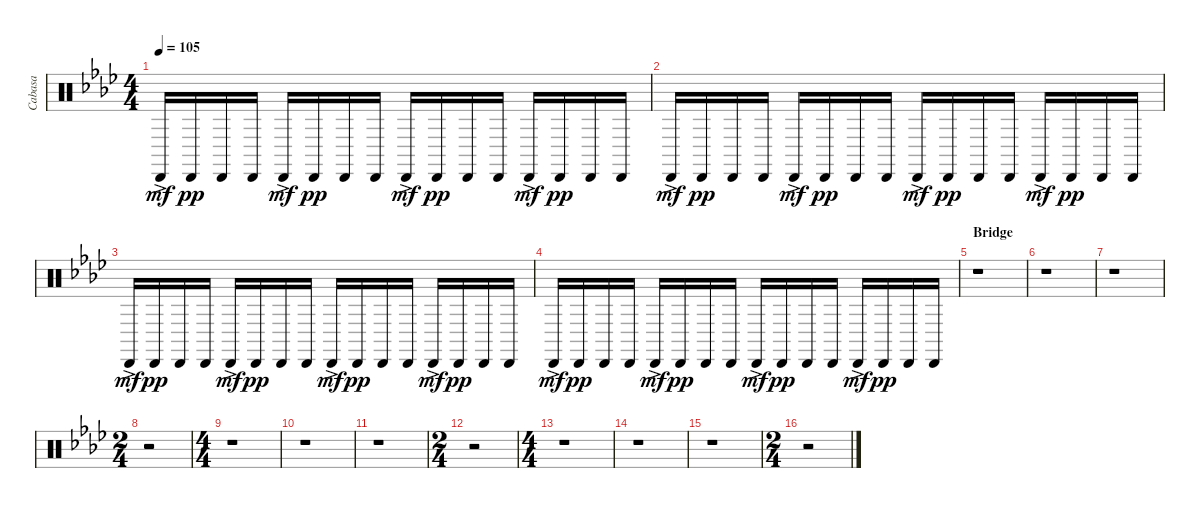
\track ("Cabasa" "Cabasa") {instrument percussion}
\staff {score}
\articulation defaults
\ts (4 4)
\tempo 105
\clef neutral
\ks ab "Cabasa (hit)"{ac}.16{dy mf} "Cabasa (hit)".16{dy pp} "Cabasa (hit)".16 "Cabasa (hit)".16 "Cabasa (hit)"{ac}.16{dy mf} "Cabasa (hit)".16{dy pp} "Cabasa (hit)".16 "Cabasa (hit)".16 "Cabasa (hit)"{ac}.16{dy mf} "Cabasa (hit)".16{dy pp} "Cabasa (hit)".16 "Cabasa (hit)".16 "Cabasa (hit)"{ac}.16{dy mf} "Cabasa (hit)".16{dy pp} "Cabasa (hit)".16 "Cabasa (hit)".16
|
"Cabasa (hit)"{ac}.16{dy mf} "Cabasa (hit)".16{dy pp} "Cabasa (hit)".16 "Cabasa (hit)".16 "Cabasa (hit)"{ac}.16{dy mf} "Cabasa (hit)".16{dy pp} "Cabasa (hit)".16 "Cabasa (hit)".16 "Cabasa (hit)"{ac}.16{dy mf} "Cabasa (hit)".16{dy pp} "Cabasa (hit)".16 "Cabasa (hit)".16 "Cabasa (hit)"{ac}.16{dy mf} "Cabasa (hit)".16{dy pp} "Cabasa (hit)".16 "Cabasa (hit)".16 |
"Cabasa (hit)"{ac}.16{dy mf} "Cabasa (hit)".16{dy pp} "Cabasa (hit)".16 "Cabasa (hit)".16 "Cabasa (hit)"{ac}.16{dy mf} "Cabasa (hit)".16{dy pp} "Cabasa (hit)".16 "Cabasa (hit)".16 "Cabasa (hit)"{ac}.16{dy mf} "Cabasa (hit)".16{dy pp} "Cabasa (hit)".16 "Cabasa (hit)".16 "Cabasa (hit)"{ac}.16{dy mf} "Cabasa (hit)".16{dy pp} "Cabasa (hit)".16 "Cabasa (hit)".16 |
"Cabasa (hit)"{ac}.16{dy mf} "Cabasa (hit)".16{dy pp} "Cabasa (hit)".16 "Cabasa (hit)".16 "Cabasa (hit)"{ac}.16{dy mf} "Cabasa (hit)".16{dy pp} "Cabasa (hit)".16 "Cabasa (hit)".16 "Cabasa (hit)"{ac}.16{dy mf} "Cabasa (hit)".16{dy pp} "Cabasa (hit)".16 "Cabasa (hit)".16 "Cabasa (hit)"{ac}.16{dy mf} "Cabasa (hit)".16{dy pp} "Cabasa (hit)".16 "Cabasa (hit)".16 |
\section ("" "Bridge")
r.1 |
r.1 |
r.1 |
\ts (2 4)
r.2 |
\ts (4 4)
r.1 |
r.1 |
r.1 |
\ts (2 4)
r.2 |
\ts (4 4)
r.1 |
r.1 |
r.1 |
\ts (2 4)
r.2
